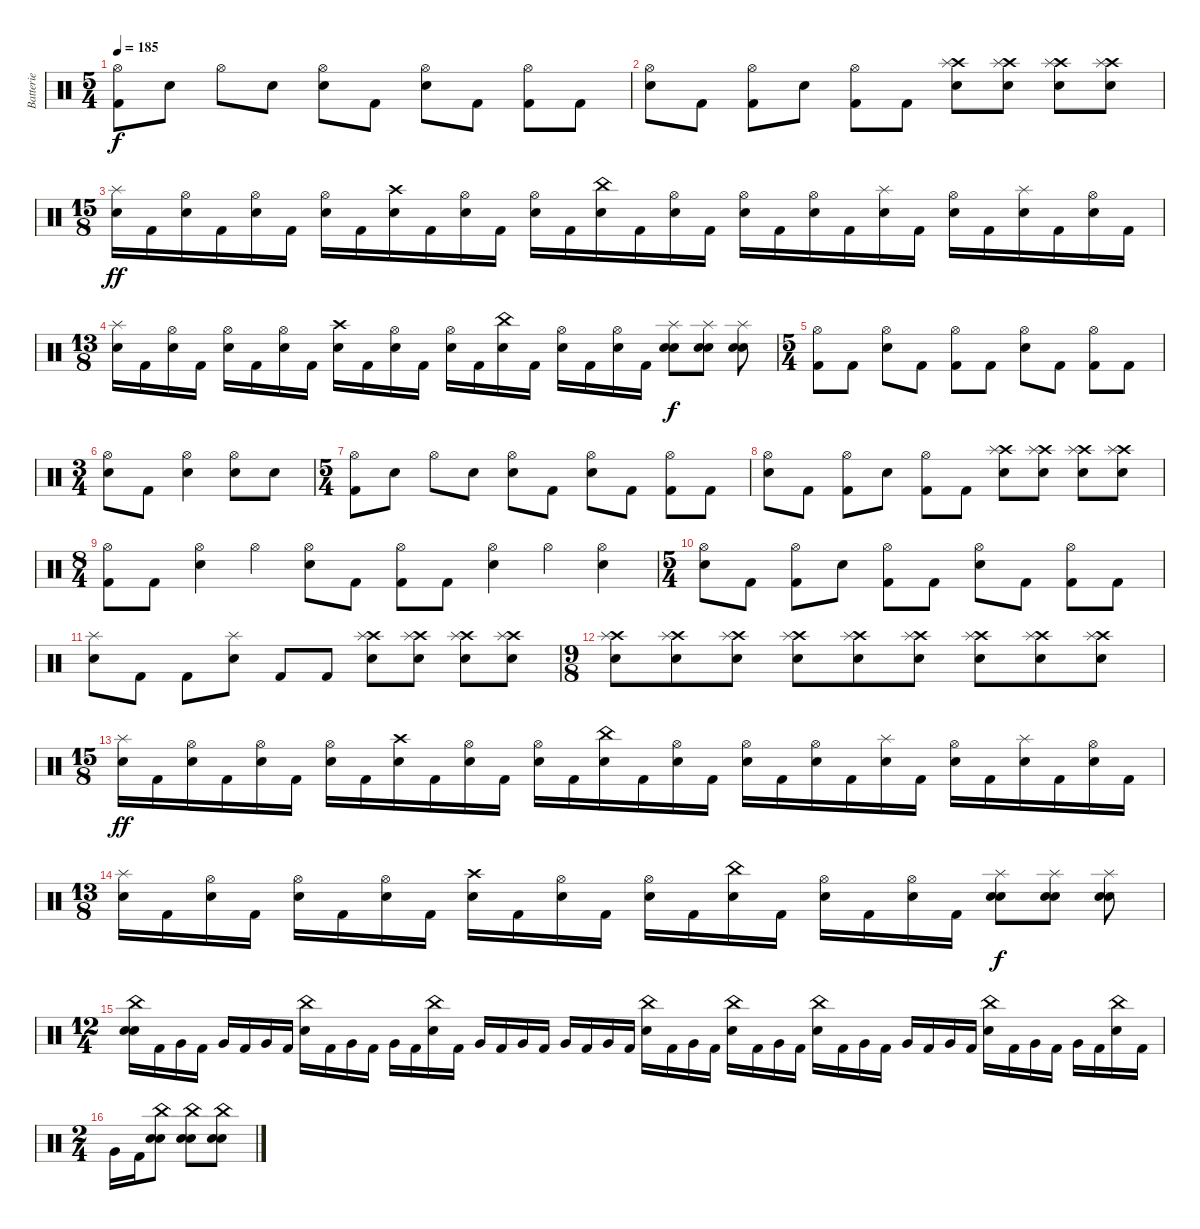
\track ("Batterie" "Batterie") {instrument percussion}
\staff {score}
\articulation defaults
\ts (5 4)
\tempo 185
\clef neutral
\ks c
("Hi-Hat (open)" "Kick (hit) 2").8{dy f} "Electric Snare (hit)".8 "Hi-Hat (open)".8 "Electric Snare (hit)".8 ("Hi-Hat (open)" "Electric Snare (hit)").8 "Kick (hit) 2".8 ("Hi-Hat (open)" "Electric Snare (hit)").8 "Kick (hit) 2".8 ("Hi-Hat (open)" "Kick (hit) 2").8 "Kick (hit) 2".8 |
("Hi-Hat (open)" "Electric Snare (hit)").8 "Kick (hit) 2".8 ("Hi-Hat (open)" "Kick (hit) 2").8 "Electric Snare (hit)".8 ("Hi-Hat (open)" "Kick (hit) 2").8 "Kick (hit) 2".8 ("Crash high (hit)" "Splash (hit)" "Electric Snare (hit)").8 ("Crash high (hit)" "Splash (hit)" "Electric Snare (hit)").8 ("Crash high (hit)" "Splash (hit)" "Electric Snare (hit)").8 ("Crash high (hit)" "Splash (hit)" "Electric Snare (hit)").8 |
\ts (15 8)
("Splash (hit)" "Electric Snare (hit)").16{dy ff} "Kick (hit) 2".16 ("Hi-Hat (open)" "Electric Snare (hit)").16 "Kick (hit) 2".16 ("Hi-Hat (open)" "Electric Snare (hit)").16 "Kick (hit) 2".16 ("Hi-Hat (open)" "Electric Snare (hit)").16 "Kick (hit) 2".16 ("Crash high (hit)" "Electric Snare (hit)").16 "Kick (hit) 2".16 ("Hi-Hat (open)" "Electric Snare (hit)").16 "Kick (hit) 2".16 ("Hi-Hat (open)" "Electric Snare (hit)").16 "Kick (hit) 2".16 ("China (hit)" "Electric Snare (hit)").16 "Kick (hit) 2".16 ("Hi-Hat (open)" "Electric Snare (hit)").16 "Kick (hit) 2".16 ("Hi-Hat (open)" "Electric Snare (hit)").16 "Kick (hit) 2".16 ("Hi-Hat (open)" "Electric Snare (hit)").16 "Kick (hit) 2".16 ("Splash (hit)" "Electric Snare (hit)").16 "Kick (hit) 2".16 ("Hi-Hat (open)" "Electric Snare (hit)").16 "Kick (hit) 2".16 ("Splash (hit)" "Electric Snare (hit)").16 "Kick (hit) 2".16 ("Hi-Hat (open)" "Electric Snare (hit)").16 "Kick (hit) 2".16 |
\ts (13 8)
("Splash (hit)" "Electric Snare (hit)").16 "Kick (hit) 2".16 ("Hi-Hat (open)" "Electric Snare (hit)").16 "Kick (hit) 2".16 ("Hi-Hat (open)" "Electric Snare (hit)").16 "Kick (hit) 2".16 ("Hi-Hat (open)" "Electric Snare (hit)").16 "Kick (hit) 2".16 ("Crash high (hit)" "Electric Snare (hit)").16 "Kick (hit) 2".16 ("Hi-Hat (open)" "Electric Snare (hit)").16 "Kick (hit) 2".16 ("Hi-Hat (open)" "Electric Snare (hit)").16 "Kick (hit) 2".16 ("China (hit)" "Electric Snare (hit)").16 "Kick (hit) 2".16 ("Hi-Hat (open)" "Electric Snare (hit)").16 "Kick (hit) 2".16 ("Hi-Hat (open)" "Electric Snare (hit)").16 "Kick (hit) 2".16 ("Splash (hit)" "Electric Snare (hit)" "Electric Snare (hit)").8{dy f} ("Splash (hit)" "Electric Snare (hit)" "Electric Snare (hit)").8 ("Splash (hit)" "Electric Snare (hit)" "Electric Snare (hit)").8 |
\ts (5 4)
("Hi-Hat (open)" "Kick (hit) 2").8 "Kick (hit) 2".8 ("Hi-Hat (open)" "Electric Snare (hit)").8 "Kick (hit) 2".8 ("Hi-Hat (open)" "Kick (hit) 2").8 "Kick (hit) 2".8 ("Hi-Hat (open)" "Electric Snare (hit)").8 "Kick (hit) 2".8 ("Hi-Hat (open)" "Kick (hit) 2").8 "Kick (hit) 2".8 |
\ts (3 4)
("Hi-Hat (open)" "Electric Snare (hit)").8 "Kick (hit) 2".8 ("Hi-Hat (open)" "Electric Snare (hit)").4 ("Hi-Hat (open)" "Electric Snare (hit)").8 "Electric Snare (hit)".8 |
\ts (5 4)
("Hi-Hat (open)" "Kick (hit) 2").8 "Electric Snare (hit)".8 "Hi-Hat (open)".8 "Electric Snare (hit)".8 ("Hi-Hat (open)" "Electric Snare (hit)").8 "Kick (hit) 2".8 ("Hi-Hat (open)" "Electric Snare (hit)").8 "Kick (hit) 2".8 ("Hi-Hat (open)" "Kick (hit) 2").8 "Kick (hit) 2".8 |
("Hi-Hat (open)" "Electric Snare (hit)").8 "Kick (hit) 2".8 ("Hi-Hat (open)" "Kick (hit) 2").8 "Electric Snare (hit)".8 ("Hi-Hat (open)" "Kick (hit) 2").8 "Kick (hit) 2".8 ("Crash high (hit)" "Splash (hit)" "Electric Snare (hit)").8 ("Crash high (hit)" "Splash (hit)" "Electric Snare (hit)").8 ("Crash high (hit)" "Splash (hit)" "Electric Snare (hit)").8 ("Crash high (hit)" "Splash (hit)" "Electric Snare (hit)").8 |
\ts (8 4)
("Hi-Hat (open)" "Kick (hit) 2").8 "Kick (hit) 2".8 ("Hi-Hat (open)" "Electric Snare (hit)").4 "Hi-Hat (open)".4 ("Hi-Hat (open)" "Electric Snare (hit)").8 "Kick (hit) 2".8 ("Hi-Hat (open)" "Kick (hit) 2").8 "Kick (hit) 2".8 ("Hi-Hat (open)" "Electric Snare (hit)").4 "Hi-Hat (open)".4 ("Hi-Hat (open)" "Electric Snare (hit)").4 |
\ts (5 4)
("Hi-Hat (open)" "Electric Snare (hit)").8 "Kick (hit) 2".8 ("Hi-Hat (open)" "Kick (hit) 2").8 "Electric Snare (hit)".8 ("Hi-Hat (open)" "Kick (hit) 2").8 "Kick (hit) 2".8 ("Hi-Hat (open)" "Electric Snare (hit)").8 "Kick (hit) 2".8 ("Hi-Hat (open)" "Kick (hit) 2").8 "Kick (hit) 2".8 |
("Splash (hit)" "Electric Snare (hit)").8 "Kick (hit) 2".8 "Kick (hit) 2".8 ("Splash (hit)" "Electric Snare (hit)").8 "Kick (hit) 2".8 "Kick (hit) 2".8 ("Crash high (hit)" "Splash (hit)" "Electric Snare (hit)").8 ("Crash high (hit)" "Splash (hit)" "Electric Snare (hit)").8 ("Crash high (hit)" "Splash (hit)" "Electric Snare (hit)").8 ("Crash high (hit)" "Splash (hit)" "Electric Snare (hit)").8 |
\ts (9 8)
("Crash high (hit)" "Splash (hit)" "Electric Snare (hit)").8 ("Crash high (hit)" "Splash (hit)" "Electric Snare (hit)").8 ("Crash high (hit)" "Splash (hit)" "Electric Snare (hit)").8 ("Crash high (hit)" "Splash (hit)" "Electric Snare (hit)").8 ("Crash high (hit)" "Splash (hit)" "Electric Snare (hit)").8 ("Crash high (hit)" "Splash (hit)" "Electric Snare (hit)").8 ("Crash high (hit)" "Splash (hit)" "Electric Snare (hit)").8 ("Crash high (hit)" "Splash (hit)" "Electric Snare (hit)").8 ("Crash high (hit)" "Splash (hit)" "Electric Snare (hit)").8 |
\ts (15 8)
("Splash (hit)" "Electric Snare (hit)").16{dy ff} "Kick (hit) 2".16 ("Hi-Hat (open)" "Electric Snare (hit)").16 "Kick (hit) 2".16 ("Hi-Hat (open)" "Electric Snare (hit)").16 "Kick (hit) 2".16 ("Hi-Hat (open)" "Electric Snare (hit)").16 "Kick (hit) 2".16 ("Crash high (hit)" "Electric Snare (hit)").16 "Kick (hit) 2".16 ("Hi-Hat (open)" "Electric Snare (hit)").16 "Kick (hit) 2".16 ("Hi-Hat (open)" "Electric Snare (hit)").16 "Kick (hit) 2".16 ("China (hit)" "Electric Snare (hit)").16 "Kick (hit) 2".16 ("Hi-Hat (open)" "Electric Snare (hit)").16 "Kick (hit) 2".16 ("Hi-Hat (open)" "Electric Snare (hit)").16 "Kick (hit) 2".16 ("Hi-Hat (open)" "Electric Snare (hit)").16 "Kick (hit) 2".16 ("Splash (hit)" "Electric Snare (hit)").16 "Kick (hit) 2".16 ("Hi-Hat (open)" "Electric Snare (hit)").16 "Kick (hit) 2".16 ("Splash (hit)" "Electric Snare (hit)").16 "Kick (hit) 2".16 ("Hi-Hat (open)" "Electric Snare (hit)").16 "Kick (hit) 2".16 |
\ts (13 8)
("Splash (hit)" "Electric Snare (hit)").16 "Kick (hit) 2".16 ("Hi-Hat (open)" "Electric Snare (hit)").16 "Kick (hit) 2".16 ("Hi-Hat (open)" "Electric Snare (hit)").16 "Kick (hit) 2".16 ("Hi-Hat (open)" "Electric Snare (hit)").16 "Kick (hit) 2".16 ("Crash high (hit)" "Electric Snare (hit)").16 "Kick (hit) 2".16 ("Hi-Hat (open)" "Electric Snare (hit)").16 "Kick (hit) 2".16 ("Hi-Hat (open)" "Electric Snare (hit)").16 "Kick (hit) 2".16 ("China (hit)" "Electric Snare (hit)").16 "Kick (hit) 2".16 ("Hi-Hat (open)" "Electric Snare (hit)").16 "Kick (hit) 2".16 ("Hi-Hat (open)" "Electric Snare (hit)").16 "Kick (hit) 2".16 ("Splash (hit)" "Electric Snare (hit)" "Electric Snare (hit)").8{dy f} ("Splash (hit)" "Electric Snare (hit)" "Electric Snare (hit)").8 ("Splash (hit)" "Electric Snare (hit)" "Electric Snare (hit)").8 |
\ts (12 4)
("China (hit)" "Electric Snare (hit)" "Electric Snare (hit)").16 "Kick (hit) 2".16 "Very Low Tom (hit)".16 "Kick (hit) 2".16 "Very Low Tom (hit)".16 "Kick (hit) 2".16 "Very Low Tom (hit)".16 "Kick (hit) 2".16 ("China (hit)" "Electric Snare (hit)").16 "Kick (hit) 2".16 "Very Low Tom (hit)".16 "Kick (hit) 2".16 "Very Low Tom (hit)".16 "Kick (hit) 2".16 ("China (hit)" "Electric Snare (hit)").16 "Kick (hit) 2".16 "Very Low Tom (hit)".16 "Kick (hit) 2".16 "Very Low Tom (hit)".16 "Kick (hit) 2".16 "Very Low Tom (hit)".16 "Kick (hit) 2".16 "Very Low Tom (hit)".16 "Kick (hit) 2".16 ("China (hit)" "Electric Snare (hit)").16 "Kick (hit) 2".16 "Very Low Tom (hit)".16 "Kick (hit) 2".16 ("China (hit)" "Electric Snare (hit)").16 "Kick (hit) 2".16 "Very Low Tom (hit)".16 "Kick (hit) 2".16 ("China (hit)" "Electric Snare (hit)").16 "Kick (hit) 2".16 "Very Low Tom (hit)".16 "Kick (hit) 2".16 "Very Low Tom (hit)".16 "Kick (hit) 2".16 "Very Low Tom (hit)".16 "Kick (hit) 2".16 ("China (hit)" "Electric Snare (hit)").16 "Kick (hit) 2".16 "Very Low Tom (hit)".16 "Kick (hit) 2".16 "Very Low Tom (hit)".16 "Kick (hit) 2".16 ("China (hit)" "Electric Snare (hit)").16 "Kick (hit) 2".16 |
\ts (2 4)
"Very Low Tom (hit)".16 "Kick (hit) 2".16 ("China (hit)" "Electric Snare (hit)" "Electric Snare (hit)").8 ("China (hit)" "Electric Snare (hit)" "Electric Snare (hit)").8 ("China (hit)" "Electric Snare (hit)" "Electric Snare (hit)").8
